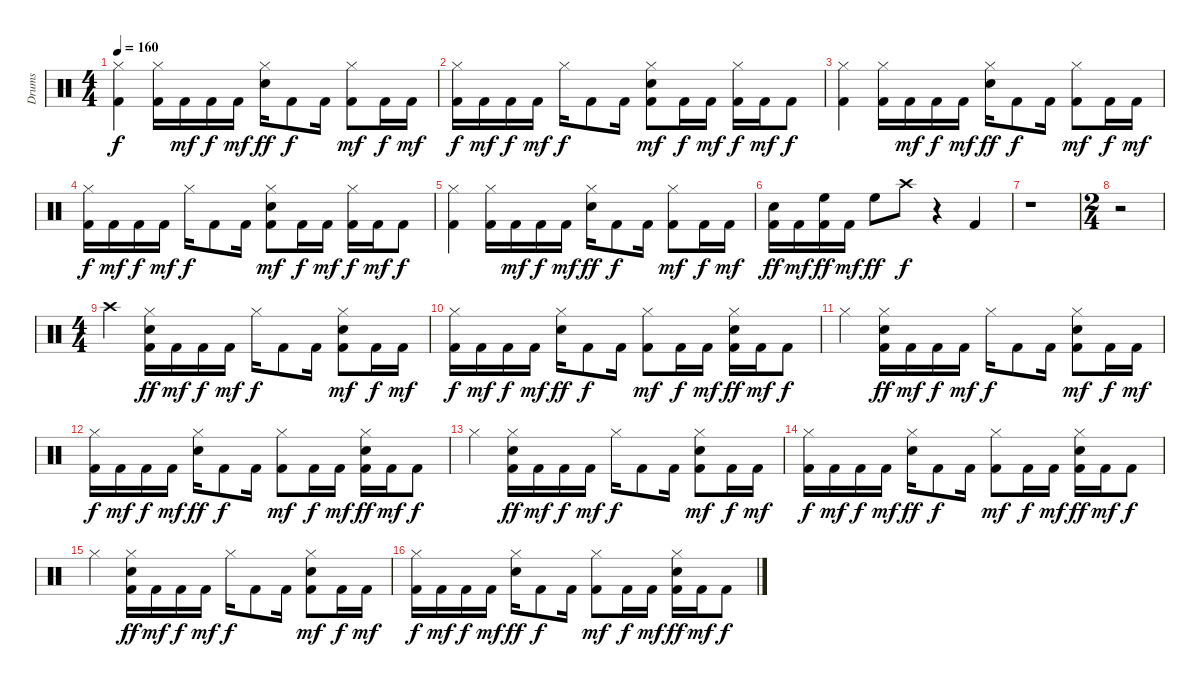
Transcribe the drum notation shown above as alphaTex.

\track ("Drums" "Drums") {instrument percussion}
\staff {score}
\articulation defaults
\ts (4 4)
\tempo 160
\clef neutral
\ks c
("Hi-Hat (closed)" "Kick (hit) 2").4{dy f} ("Hi-Hat (closed)" "Kick (hit) 2").16 "Kick (hit) 2".16{dy mf} "Kick (hit) 2".16{dy f} "Kick (hit) 2".16{dy mf} ("Snare (hit) 2" "Hi-Hat (closed)").16{dy ff} "Kick (hit) 2".8{dy f} "Kick (hit) 2".16 ("Hi-Hat (closed)" "Kick (hit) 2").8{dy mf} "Kick (hit) 2".16{dy f} "Kick (hit) 2".16{dy mf} |
("Hi-Hat (closed)" "Kick (hit) 2").16{dy f} "Kick (hit) 2".16{dy mf} "Kick (hit) 2".16{dy f} "Kick (hit) 2".16{dy mf} "Hi-Hat (closed)".16{dy f} "Kick (hit) 2".8 "Kick (hit) 2".16 ("Snare (hit) 2" "Hi-Hat (closed)" "Kick (hit) 2").8{dy mf} "Kick (hit) 2".16{dy f} "Kick (hit) 2".16{dy mf} ("Hi-Hat (closed)" "Kick (hit) 2").16{dy f} "Kick (hit) 2".16{dy mf} "Kick (hit) 2".8{dy f} |
("Hi-Hat (closed)" "Kick (hit) 2").4 ("Hi-Hat (closed)" "Kick (hit) 2").16 "Kick (hit) 2".16{dy mf} "Kick (hit) 2".16{dy f} "Kick (hit) 2".16{dy mf} ("Snare (hit) 2" "Hi-Hat (closed)").16{dy ff} "Kick (hit) 2".8{dy f} "Kick (hit) 2".16 ("Hi-Hat (closed)" "Kick (hit) 2").8{dy mf} "Kick (hit) 2".16{dy f} "Kick (hit) 2".16{dy mf} |
("Hi-Hat (closed)" "Kick (hit) 2").16{dy f} "Kick (hit) 2".16{dy mf} "Kick (hit) 2".16{dy f} "Kick (hit) 2".16{dy mf} "Hi-Hat (closed)".16{dy f} "Kick (hit) 2".8 "Kick (hit) 2".16 ("Snare (hit) 2" "Hi-Hat (closed)" "Kick (hit) 2").8{dy mf} "Kick (hit) 2".16{dy f} "Kick (hit) 2".16{dy mf} ("Hi-Hat (closed)" "Kick (hit) 2").16{dy f} "Kick (hit) 2".16{dy mf} "Kick (hit) 2".8{dy f} |
("Hi-Hat (closed)" "Kick (hit) 2").4 ("Hi-Hat (closed)" "Kick (hit) 2").16 "Kick (hit) 2".16{dy mf} "Kick (hit) 2".16{dy f} "Kick (hit) 2".16{dy mf} ("Snare (hit) 2" "Hi-Hat (closed)").16{dy ff} "Kick (hit) 2".8{dy f} "Kick (hit) 2".16 ("Hi-Hat (closed)" "Kick (hit) 2").8{dy mf} "Kick (hit) 2".16{dy f} "Kick (hit) 2".16{dy mf} |
("Snare (hit) 2" "Kick (hit) 2").16{dy ff} "Kick (hit) 2".16{dy mf} ("High Floor Tom (hit)" "Kick (hit) 2").16{dy ff} "Kick (hit) 2".16{dy mf} "High Floor Tom (hit)".8{dy ff} "Crash high (hit)".8{dy f} r.4 "Kick (hit) 2".4 |
r.1 |
\ts (2 4)
r.2 |
\ts (4 4)
"Crash high (hit)".4 ("Snare (hit) 2" "Hi-Hat (closed)" "Kick (hit) 2").16{dy ff} "Kick (hit) 2".16{dy mf} "Kick (hit) 2".16{dy f} "Kick (hit) 2".16{dy mf} "Hi-Hat (closed)".16{dy f} "Kick (hit) 2".8 "Kick (hit) 2".16 ("Snare (hit) 2" "Hi-Hat (closed)" "Kick (hit) 2").8{dy mf} "Kick (hit) 2".16{dy f} "Kick (hit) 2".16{dy mf} |
("Hi-Hat (closed)" "Kick (hit) 2").16{dy f} "Kick (hit) 2".16{dy mf} "Kick (hit) 2".16{dy f} "Kick (hit) 2".16{dy mf} ("Snare (hit) 2" "Hi-Hat (closed)").16{dy ff} "Kick (hit) 2".8{dy f} "Kick (hit) 2".16 ("Hi-Hat (closed)" "Kick (hit) 2").8{dy mf} "Kick (hit) 2".16{dy f} "Kick (hit) 2".16{dy mf} ("Snare (hit) 2" "Hi-Hat (closed)" "Kick (hit) 2").16{dy ff} "Kick (hit) 2".16{dy mf} "Kick (hit) 2".8{dy f} |
"Hi-Hat (closed)".4 ("Snare (hit) 2" "Hi-Hat (closed)" "Kick (hit) 2").16{dy ff} "Kick (hit) 2".16{dy mf} "Kick (hit) 2".16{dy f} "Kick (hit) 2".16{dy mf} "Hi-Hat (closed)".16{dy f} "Kick (hit) 2".8 "Kick (hit) 2".16 ("Snare (hit) 2" "Hi-Hat (closed)" "Kick (hit) 2").8{dy mf} "Kick (hit) 2".16{dy f} "Kick (hit) 2".16{dy mf} |
("Hi-Hat (closed)" "Kick (hit) 2").16{dy f} "Kick (hit) 2".16{dy mf} "Kick (hit) 2".16{dy f} "Kick (hit) 2".16{dy mf} ("Snare (hit) 2" "Hi-Hat (closed)").16{dy ff} "Kick (hit) 2".8{dy f} "Kick (hit) 2".16 ("Hi-Hat (closed)" "Kick (hit) 2").8{dy mf} "Kick (hit) 2".16{dy f} "Kick (hit) 2".16{dy mf} ("Snare (hit) 2" "Hi-Hat (closed)" "Kick (hit) 2").16{dy ff} "Kick (hit) 2".16{dy mf} "Kick (hit) 2".8{dy f} |
"Hi-Hat (closed)".4 ("Snare (hit) 2" "Hi-Hat (closed)" "Kick (hit) 2").16{dy ff} "Kick (hit) 2".16{dy mf} "Kick (hit) 2".16{dy f} "Kick (hit) 2".16{dy mf} "Hi-Hat (closed)".16{dy f} "Kick (hit) 2".8 "Kick (hit) 2".16 ("Snare (hit) 2" "Hi-Hat (closed)" "Kick (hit) 2").8{dy mf} "Kick (hit) 2".16{dy f} "Kick (hit) 2".16{dy mf} |
("Hi-Hat (closed)" "Kick (hit) 2").16{dy f} "Kick (hit) 2".16{dy mf} "Kick (hit) 2".16{dy f} "Kick (hit) 2".16{dy mf} ("Snare (hit) 2" "Hi-Hat (closed)").16{dy ff} "Kick (hit) 2".8{dy f} "Kick (hit) 2".16 ("Hi-Hat (closed)" "Kick (hit) 2").8{dy mf} "Kick (hit) 2".16{dy f} "Kick (hit) 2".16{dy mf} ("Snare (hit) 2" "Hi-Hat (closed)" "Kick (hit) 2").16{dy ff} "Kick (hit) 2".16{dy mf} "Kick (hit) 2".8{dy f} |
"Hi-Hat (closed)".4 ("Snare (hit) 2" "Hi-Hat (closed)" "Kick (hit) 2").16{dy ff} "Kick (hit) 2".16{dy mf} "Kick (hit) 2".16{dy f} "Kick (hit) 2".16{dy mf} "Hi-Hat (closed)".16{dy f} "Kick (hit) 2".8 "Kick (hit) 2".16 ("Snare (hit) 2" "Hi-Hat (closed)" "Kick (hit) 2").8{dy mf} "Kick (hit) 2".16{dy f} "Kick (hit) 2".16{dy mf} |
("Hi-Hat (closed)" "Kick (hit) 2").16{dy f} "Kick (hit) 2".16{dy mf} "Kick (hit) 2".16{dy f} "Kick (hit) 2".16{dy mf} ("Snare (hit) 2" "Hi-Hat (closed)").16{dy ff} "Kick (hit) 2".8{dy f} "Kick (hit) 2".16 ("Hi-Hat (closed)" "Kick (hit) 2").8{dy mf} "Kick (hit) 2".16{dy f} "Kick (hit) 2".16{dy mf} ("Snare (hit) 2" "Hi-Hat (closed)" "Kick (hit) 2").16{dy ff} "Kick (hit) 2".16{dy mf} "Kick (hit) 2".8{dy f}
